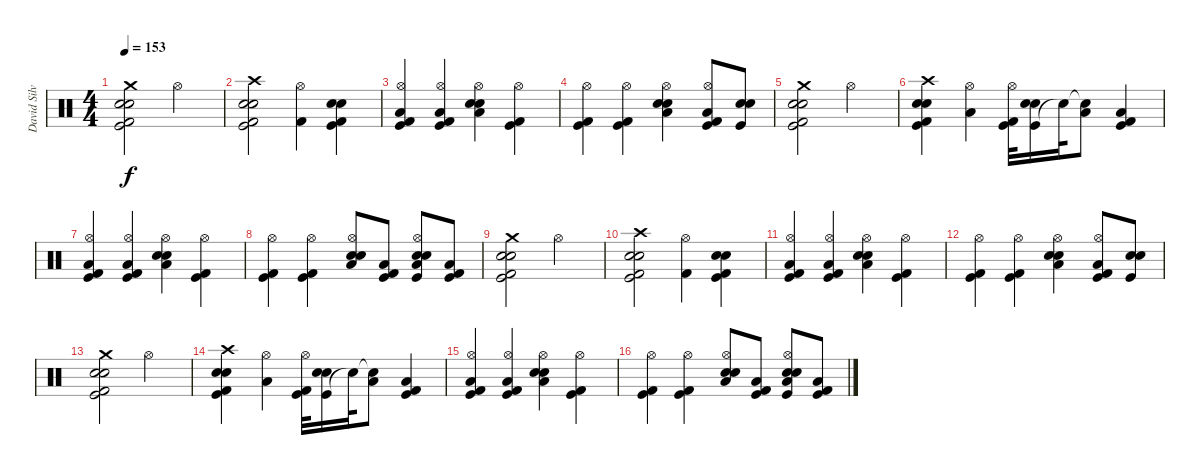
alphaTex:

\track ("David Silveria" "David Silv") {instrument percussion}
\staff {score}
\articulation defaults
\ts (4 4)
\tempo 153
\clef neutral
\ks c
("Crash medium (hit)" "Electric Snare (hit)" "Kick (hit) 2" "Kick (hit)" "Snare (hit) 2").2{dy f} "Hi-Hat (open)".2 |
("Crash high (hit)" "Electric Snare (hit)" "Kick (hit)" "Kick (hit) 2" "Snare (hit) 2").2 ("Hi-Hat (open)" "Kick (hit) 2").4 ("Electric Snare (hit)" "Kick (hit) 2" "Kick (hit)" "Snare (hit) 2").4 |
("Hi-Hat (open)" "Kick (hit)" "Kick (hit) 2" "Low Floor Tom (hit)").4 ("Hi-Hat (open)" "Kick (hit)" "Kick (hit) 2" "Low Floor Tom (hit)").4 ("Hi-Hat (open)" "Electric Snare (hit)" "Low Floor Tom (hit)" "Snare (hit) 2").4 ("Hi-Hat (open)" "Kick (hit)" "Kick (hit) 2").4 |
("Hi-Hat (open)" "Kick (hit)" "Kick (hit) 2").4 ("Hi-Hat (open)" "Kick (hit)" "Kick (hit) 2").4 ("Hi-Hat (open)" "Electric Snare (hit)" "Low Floor Tom (hit)" "Snare (hit) 2").4 ("Hi-Hat (open)" "Kick (hit)" "Kick (hit) 2" "Low Floor Tom (hit)").8 ("Electric Snare (hit)" "Kick (hit)" "Snare (hit) 2").8 |
("Crash medium (hit)" "Electric Snare (hit)" "Kick (hit) 2" "Kick (hit)" "Snare (hit) 2").2 "Hi-Hat (open)".2 |
("Crash high (hit)" "Electric Snare (hit)" "Kick (hit) 2" "Kick (hit)" "Snare (hit) 2").4 ("Hi-Hat (open)" "Low Floor Tom (hit)").4 ("Hi-Hat (open)" "Kick (hit) 2" "Kick (hit)").32 ("Kick (hit)" "Electric Snare (hit)" "Snare (hit) 2").16 "Snare (hit)"{t}.32 ("Snare (hit)"{t} "Low Tom (hit)").8 ("Kick (hit) 2" "Kick (hit)" "Low Floor Tom (hit)").4 |
("Hi-Hat (open)" "Kick (hit)" "Kick (hit) 2" "Low Floor Tom (hit)").4 ("Hi-Hat (open)" "Kick (hit)" "Kick (hit) 2" "Low Floor Tom (hit)").4 ("Hi-Hat (open)" "Electric Snare (hit)" "Low Floor Tom (hit)" "Snare (hit) 2").4 ("Hi-Hat (open)" "Kick (hit)" "Kick (hit) 2").4 |
("Hi-Hat (open)" "Kick (hit)" "Kick (hit) 2").4 ("Hi-Hat (open)" "Kick (hit)" "Kick (hit) 2").4 ("Hi-Hat (open)" "Electric Snare (hit)" "Low Floor Tom (hit)" "Snare (hit) 2").8 ("Kick (hit)" "Kick (hit) 2" "Low Floor Tom (hit)").8 ("Hi-Hat (open)" "Low Tom (hit)" "Electric Snare (hit)" "Kick (hit)" "Snare (hit) 2").8 ("Kick (hit) 2" "Kick (hit)" "Low Floor Tom (hit)").8 |
("Crash medium (hit)" "Electric Snare (hit)" "Kick (hit) 2" "Kick (hit)" "Snare (hit) 2").2 "Hi-Hat (open)".2 |
("Crash high (hit)" "Electric Snare (hit)" "Kick (hit)" "Kick (hit) 2" "Snare (hit) 2").2 ("Hi-Hat (open)" "Kick (hit) 2").4 ("Electric Snare (hit)" "Kick (hit) 2" "Kick (hit)" "Snare (hit) 2").4 |
("Hi-Hat (open)" "Kick (hit)" "Kick (hit) 2" "Low Floor Tom (hit)").4 ("Hi-Hat (open)" "Kick (hit)" "Kick (hit) 2" "Low Floor Tom (hit)").4 ("Hi-Hat (open)" "Electric Snare (hit)" "Low Floor Tom (hit)" "Snare (hit) 2").4 ("Hi-Hat (open)" "Kick (hit)" "Kick (hit) 2").4 |
("Hi-Hat (open)" "Kick (hit)" "Kick (hit) 2").4 ("Hi-Hat (open)" "Kick (hit)" "Kick (hit) 2").4 ("Hi-Hat (open)" "Electric Snare (hit)" "Low Floor Tom (hit)" "Snare (hit) 2").4 ("Hi-Hat (open)" "Kick (hit)" "Kick (hit) 2" "Low Floor Tom (hit)").8 ("Electric Snare (hit)" "Kick (hit)" "Snare (hit) 2").8 |
("Crash medium (hit)" "Electric Snare (hit)" "Kick (hit) 2" "Kick (hit)" "Snare (hit) 2").2 "Hi-Hat (open)".2 |
("Crash high (hit)" "Electric Snare (hit)" "Kick (hit) 2" "Kick (hit)" "Snare (hit) 2").4 ("Hi-Hat (open)" "Low Floor Tom (hit)").4 ("Hi-Hat (open)" "Kick (hit) 2" "Kick (hit)").32 ("Kick (hit)" "Electric Snare (hit)" "Snare (hit) 2").16 "Snare (hit)"{t}.32 ("Snare (hit)"{t} "Low Tom (hit)").8 ("Kick (hit) 2" "Kick (hit)" "Low Floor Tom (hit)").4 |
("Hi-Hat (open)" "Kick (hit)" "Kick (hit) 2" "Low Floor Tom (hit)").4 ("Hi-Hat (open)" "Kick (hit)" "Kick (hit) 2" "Low Floor Tom (hit)").4 ("Hi-Hat (open)" "Electric Snare (hit)" "Low Floor Tom (hit)" "Snare (hit) 2").4 ("Hi-Hat (open)" "Kick (hit)" "Kick (hit) 2").4 |
("Hi-Hat (open)" "Kick (hit)" "Kick (hit) 2").4 ("Hi-Hat (open)" "Kick (hit)" "Kick (hit) 2").4 ("Hi-Hat (open)" "Electric Snare (hit)" "Low Floor Tom (hit)" "Snare (hit) 2").8 ("Kick (hit)" "Kick (hit) 2" "Low Floor Tom (hit)").8 ("Hi-Hat (open)" "Low Tom (hit)" "Electric Snare (hit)" "Kick (hit)" "Snare (hit) 2").8 ("Kick (hit) 2" "Kick (hit)" "Low Floor Tom (hit)").8
